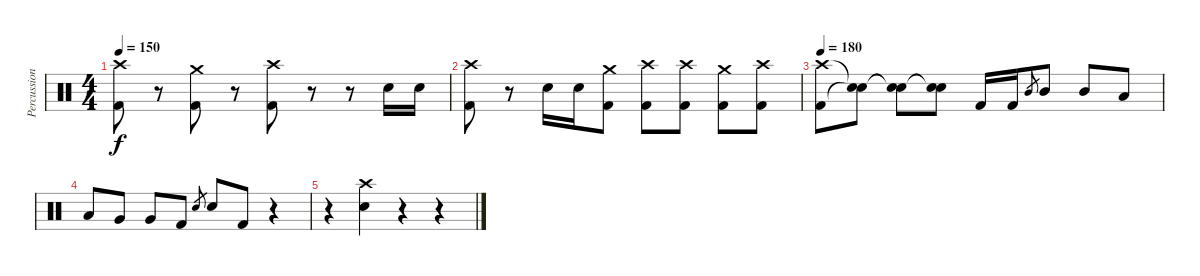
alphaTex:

\track ("Percussion" "Percussion") {instrument percussion}
\staff {score}
\articulation defaults
\ts (4 4)
\tempo 150
\clef neutral
\ks c
("Crash high (hit)" "Kick (hit) 2").8{dy f} r.8 ("Crash medium (hit)" "Kick (hit) 2").8 r.8 ("Crash high (hit)" "Kick (hit) 2").8 r.8 r.8 "Snare (hit) 2".16 "Snare (hit) 2".16 |
("Crash high (hit)" "Kick (hit) 2").8 r.8 "Snare (hit) 2".16 "Snare (hit) 2".16 ("Crash medium (hit)" "Kick (hit) 2").8 ("Crash high (hit)" "Kick (hit) 2").8 ("Crash high (hit)" "Kick (hit) 2").8 ("Crash medium (hit)" "Kick (hit) 2").8 ("Crash high (hit)" "Kick (hit) 2").8 |
\tempo 180
("Crash high (hit)" "Kick (hit) 2").8 ("Snare (hit)"{t} "Snare (hit)"{t}).8 ("Snare (hit)"{t} "Snare (hit)"{t}).8 ("Snare (hit)"{t} "Snare (hit)"{t}).8 "Kick (hit) 2".16 "Kick (hit) 2".16 "Mid Tom (hit)".8{gr} "Mid Tom (hit)".8 "Mid Tom (hit)".8 "Low Tom (hit)".8 |
"Low Tom (hit)".8 "Very Low Tom (hit)".8 "Very Low Tom (hit)".8 "Kick (hit) 2".8 "Snare (hit) 2".8{gr} "Snare (hit) 2".8 "Kick (hit) 2".8 r.4 |
r.4 ("Crash high (hit)" "Snare (hit) 2").4 r.4 r.4
